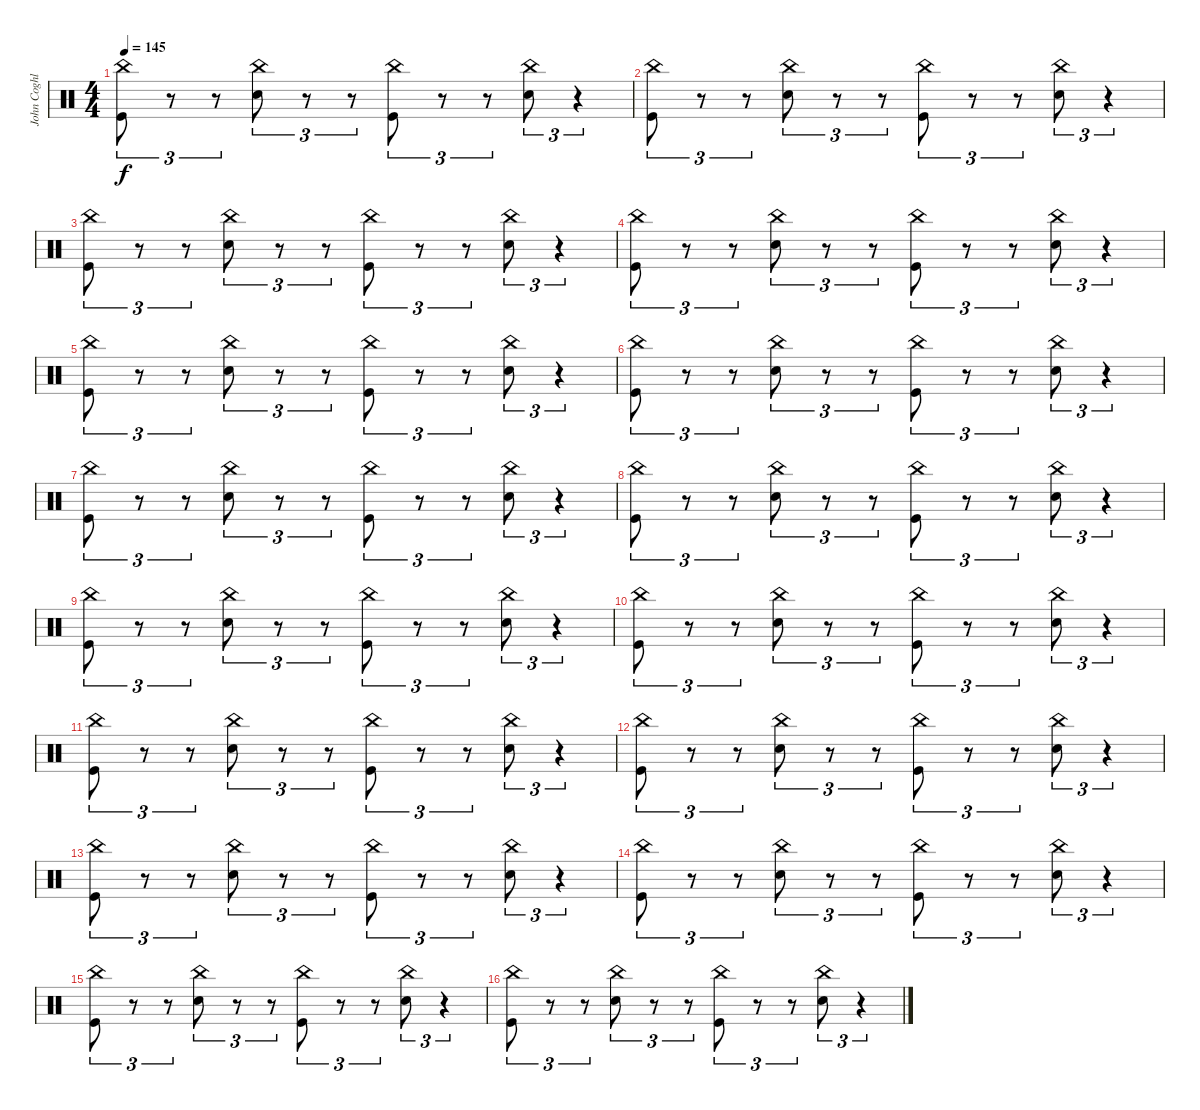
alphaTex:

\track ("John Coghlan" "John Coghl") {instrument percussion}
\staff {score}
\articulation defaults
\ts (4 4)
\tempo 145
\clef neutral
\ks c
("China (hit)" "Kick (hit)").8{tu (3 2) dy f} r.8{tu (3 2)} r.8{tu (3 2)} ("Electric Snare (hit)" "China (hit)").8{tu (3 2)} r.8{tu (3 2)} r.8{tu (3 2)} ("China (hit)" "Kick (hit)").8{tu (3 2)} r.8{tu (3 2)} r.8{tu (3 2)} ("Electric Snare (hit)" "China (hit)").8{tu (3 2)} r.4{tu (3 2)} |
("China (hit)" "Kick (hit)").8{tu (3 2)} r.8{tu (3 2)} r.8{tu (3 2)} ("Electric Snare (hit)" "China (hit)").8{tu (3 2)} r.8{tu (3 2)} r.8{tu (3 2)} ("China (hit)" "Kick (hit)").8{tu (3 2)} r.8{tu (3 2)} r.8{tu (3 2)} ("Electric Snare (hit)" "China (hit)").8{tu (3 2)} r.4{tu (3 2)} |
("China (hit)" "Kick (hit)").8{tu (3 2)} r.8{tu (3 2)} r.8{tu (3 2)} ("Electric Snare (hit)" "China (hit)").8{tu (3 2)} r.8{tu (3 2)} r.8{tu (3 2)} ("China (hit)" "Kick (hit)").8{tu (3 2)} r.8{tu (3 2)} r.8{tu (3 2)} ("Electric Snare (hit)" "China (hit)").8{tu (3 2)} r.4{tu (3 2)} |
("China (hit)" "Kick (hit)").8{tu (3 2)} r.8{tu (3 2)} r.8{tu (3 2)} ("Electric Snare (hit)" "China (hit)").8{tu (3 2)} r.8{tu (3 2)} r.8{tu (3 2)} ("China (hit)" "Kick (hit)").8{tu (3 2)} r.8{tu (3 2)} r.8{tu (3 2)} ("Electric Snare (hit)" "China (hit)").8{tu (3 2)} r.4{tu (3 2)} |
("China (hit)" "Kick (hit)").8{tu (3 2)} r.8{tu (3 2)} r.8{tu (3 2)} ("Electric Snare (hit)" "China (hit)").8{tu (3 2)} r.8{tu (3 2)} r.8{tu (3 2)} ("China (hit)" "Kick (hit)").8{tu (3 2)} r.8{tu (3 2)} r.8{tu (3 2)} ("Electric Snare (hit)" "China (hit)").8{tu (3 2)} r.4{tu (3 2)} |
("China (hit)" "Kick (hit)").8{tu (3 2)} r.8{tu (3 2)} r.8{tu (3 2)} ("Electric Snare (hit)" "China (hit)").8{tu (3 2)} r.8{tu (3 2)} r.8{tu (3 2)} ("China (hit)" "Kick (hit)").8{tu (3 2)} r.8{tu (3 2)} r.8{tu (3 2)} ("Electric Snare (hit)" "China (hit)").8{tu (3 2)} r.4{tu (3 2)} |
("China (hit)" "Kick (hit)").8{tu (3 2)} r.8{tu (3 2)} r.8{tu (3 2)} ("Electric Snare (hit)" "China (hit)").8{tu (3 2)} r.8{tu (3 2)} r.8{tu (3 2)} ("China (hit)" "Kick (hit)").8{tu (3 2)} r.8{tu (3 2)} r.8{tu (3 2)} ("Electric Snare (hit)" "China (hit)").8{tu (3 2)} r.4{tu (3 2)} |
("China (hit)" "Kick (hit)").8{tu (3 2)} r.8{tu (3 2)} r.8{tu (3 2)} ("Electric Snare (hit)" "China (hit)").8{tu (3 2)} r.8{tu (3 2)} r.8{tu (3 2)} ("China (hit)" "Kick (hit)").8{tu (3 2)} r.8{tu (3 2)} r.8{tu (3 2)} ("Electric Snare (hit)" "China (hit)").8{tu (3 2)} r.4{tu (3 2)} |
("China (hit)" "Kick (hit)").8{tu (3 2)} r.8{tu (3 2)} r.8{tu (3 2)} ("Electric Snare (hit)" "China (hit)").8{tu (3 2)} r.8{tu (3 2)} r.8{tu (3 2)} ("China (hit)" "Kick (hit)").8{tu (3 2)} r.8{tu (3 2)} r.8{tu (3 2)} ("Electric Snare (hit)" "China (hit)").8{tu (3 2)} r.4{tu (3 2)} |
("China (hit)" "Kick (hit)").8{tu (3 2)} r.8{tu (3 2)} r.8{tu (3 2)} ("Electric Snare (hit)" "China (hit)").8{tu (3 2)} r.8{tu (3 2)} r.8{tu (3 2)} ("China (hit)" "Kick (hit)").8{tu (3 2)} r.8{tu (3 2)} r.8{tu (3 2)} ("Electric Snare (hit)" "China (hit)").8{tu (3 2)} r.4{tu (3 2)} |
("China (hit)" "Kick (hit)").8{tu (3 2)} r.8{tu (3 2)} r.8{tu (3 2)} ("Electric Snare (hit)" "China (hit)").8{tu (3 2)} r.8{tu (3 2)} r.8{tu (3 2)} ("China (hit)" "Kick (hit)").8{tu (3 2)} r.8{tu (3 2)} r.8{tu (3 2)} ("Electric Snare (hit)" "China (hit)").8{tu (3 2)} r.4{tu (3 2)} |
("China (hit)" "Kick (hit)").8{tu (3 2)} r.8{tu (3 2)} r.8{tu (3 2)} ("Electric Snare (hit)" "China (hit)").8{tu (3 2)} r.8{tu (3 2)} r.8{tu (3 2)} ("China (hit)" "Kick (hit)").8{tu (3 2)} r.8{tu (3 2)} r.8{tu (3 2)} ("Electric Snare (hit)" "China (hit)").8{tu (3 2)} r.4{tu (3 2)} |
("China (hit)" "Kick (hit)").8{tu (3 2)} r.8{tu (3 2)} r.8{tu (3 2)} ("Electric Snare (hit)" "China (hit)").8{tu (3 2)} r.8{tu (3 2)} r.8{tu (3 2)} ("China (hit)" "Kick (hit)").8{tu (3 2)} r.8{tu (3 2)} r.8{tu (3 2)} ("Electric Snare (hit)" "China (hit)").8{tu (3 2)} r.4{tu (3 2)} |
("China (hit)" "Kick (hit)").8{tu (3 2)} r.8{tu (3 2)} r.8{tu (3 2)} ("Electric Snare (hit)" "China (hit)").8{tu (3 2)} r.8{tu (3 2)} r.8{tu (3 2)} ("China (hit)" "Kick (hit)").8{tu (3 2)} r.8{tu (3 2)} r.8{tu (3 2)} ("Electric Snare (hit)" "China (hit)").8{tu (3 2)} r.4{tu (3 2)} |
("China (hit)" "Kick (hit)").8{tu (3 2)} r.8{tu (3 2)} r.8{tu (3 2)} ("Electric Snare (hit)" "China (hit)").8{tu (3 2)} r.8{tu (3 2)} r.8{tu (3 2)} ("China (hit)" "Kick (hit)").8{tu (3 2)} r.8{tu (3 2)} r.8{tu (3 2)} ("Electric Snare (hit)" "China (hit)").8{tu (3 2)} r.4{tu (3 2)} |
("China (hit)" "Kick (hit)").8{tu (3 2)} r.8{tu (3 2)} r.8{tu (3 2)} ("Electric Snare (hit)" "China (hit)").8{tu (3 2)} r.8{tu (3 2)} r.8{tu (3 2)} ("China (hit)" "Kick (hit)").8{tu (3 2)} r.8{tu (3 2)} r.8{tu (3 2)} ("Electric Snare (hit)" "China (hit)").8{tu (3 2)} r.4{tu (3 2)}
